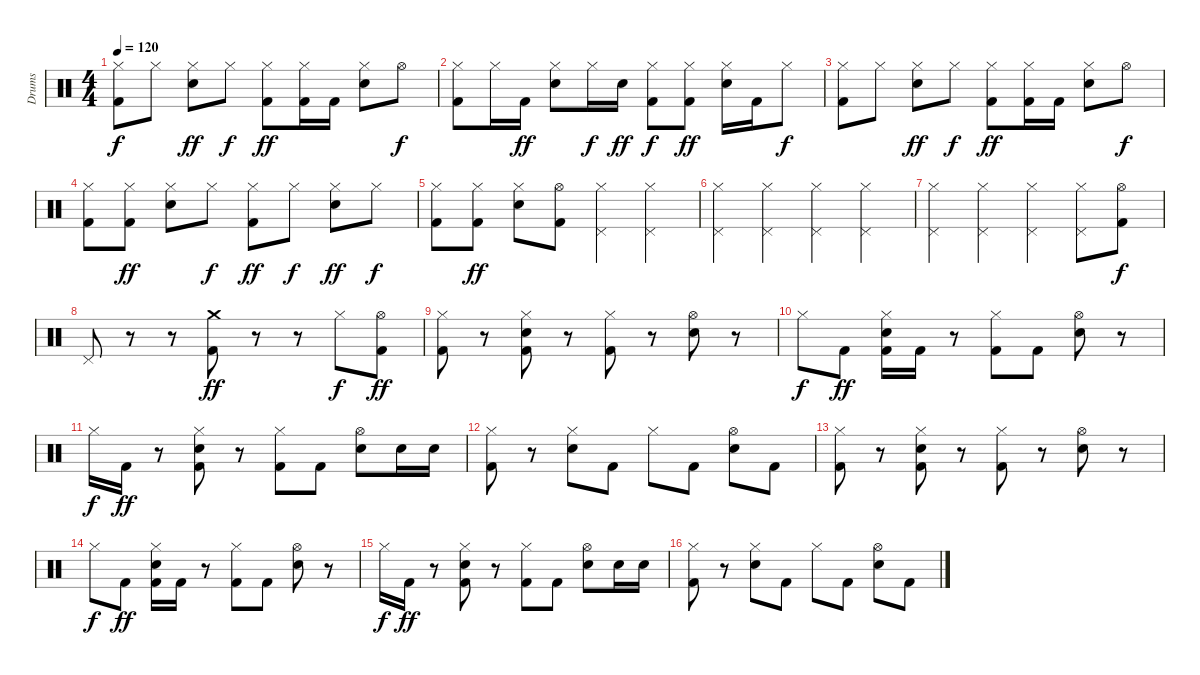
\track ("Drums" "Drums") {instrument percussion}
\staff {score}
\articulation defaults
\ts (4 4)
\tempo 120
\clef neutral
\ks c
("Hi-Hat (closed)" "Kick (hit) 2").8{dy f} "Hi-Hat (closed)".8 ("Hi-Hat (closed)" "Electric Snare (hit)").8{dy ff} "Hi-Hat (closed)".8{dy f} ("Hi-Hat (closed)" "Kick (hit) 2").8{dy ff} ("Hi-Hat (closed)" "Kick (hit) 2").16 "Kick (hit) 2".16 ("Hi-Hat (closed)" "Electric Snare (hit)").8 "Hi-Hat (open)".8{dy f} |
("Hi-Hat (closed)" "Kick (hit) 2").8 "Hi-Hat (closed)".16 "Kick (hit) 2".16{dy ff} ("Hi-Hat (closed)" "Electric Snare (hit)").8 "Hi-Hat (closed)".16{dy f} "Electric Snare (hit)".16{dy ff} ("Hi-Hat (closed)" "Kick (hit) 2").8{dy f} ("Hi-Hat (closed)" "Kick (hit) 2").8{dy ff} ("Hi-Hat (closed)" "Electric Snare (hit)").16 "Kick (hit) 2".16 "Hi-Hat (closed)".8{dy f} |
("Hi-Hat (closed)" "Kick (hit) 2").8 "Hi-Hat (closed)".8 ("Hi-Hat (closed)" "Electric Snare (hit)").8{dy ff} "Hi-Hat (closed)".8{dy f} ("Hi-Hat (closed)" "Kick (hit) 2").8{dy ff} ("Hi-Hat (closed)" "Kick (hit) 2").16 "Kick (hit) 2".16 ("Hi-Hat (closed)" "Electric Snare (hit)").8 "Hi-Hat (open)".8{dy f} |
("Hi-Hat (closed)" "Kick (hit) 2").8 ("Hi-Hat (closed)" "Kick (hit) 2").8{dy ff} ("Hi-Hat (closed)" "Electric Snare (hit)").8 "Hi-Hat (closed)".8{dy f} ("Hi-Hat (closed)" "Kick (hit) 2").8{dy ff} "Hi-Hat (closed)".8{dy f} ("Hi-Hat (closed)" "Electric Snare (hit)").8{dy ff} "Hi-Hat (closed)".8{dy f} |
("Hi-Hat (closed)" "Kick (hit) 2").8 ("Hi-Hat (closed)" "Kick (hit) 2").8{dy ff} ("Hi-Hat (closed)" "Electric Snare (hit)").8 ("Hi-Hat (open)" "Kick (hit) 2").8 ("Hi-Hat (closed)" "Pedal Hi-Hat (hit)").4 ("Hi-Hat (closed)" "Pedal Hi-Hat (hit)").4 |
("Hi-Hat (closed)" "Pedal Hi-Hat (hit)").4 ("Hi-Hat (closed)" "Pedal Hi-Hat (hit)").4 ("Hi-Hat (closed)" "Pedal Hi-Hat (hit)").4 ("Hi-Hat (closed)" "Pedal Hi-Hat (hit)").4 |
("Hi-Hat (closed)" "Pedal Hi-Hat (hit)").4 ("Hi-Hat (closed)" "Pedal Hi-Hat (hit)").4 ("Hi-Hat (closed)" "Pedal Hi-Hat (hit)").4 ("Hi-Hat (closed)" "Pedal Hi-Hat (hit)").8 ("Hi-Hat (open)" "Kick (hit) 2").8{dy f} |
"Pedal Hi-Hat (hit)".8 r.8 r.8 ("Crash medium (hit)" "Kick (hit) 2").8{dy ff} r.8 r.8 "Hi-Hat (closed)".8{dy f} ("Hi-Hat (open)" "Kick (hit) 2").8{dy ff} |
("Hi-Hat (closed)" "Kick (hit) 2").8 r.8 ("Hi-Hat (closed)" "Electric Snare (hit)" "Kick (hit) 2").8 r.8 ("Hi-Hat (closed)" "Kick (hit) 2").8 r.8 ("Hi-Hat (open)" "Electric Snare (hit)").8 r.8 |
"Hi-Hat (closed)".8{dy f} "Kick (hit) 2".8{dy ff} ("Hi-Hat (closed)" "Electric Snare (hit)" "Kick (hit) 2").16 "Kick (hit) 2".16 r.8 ("Hi-Hat (closed)" "Kick (hit) 2").8 "Kick (hit) 2".8 ("Hi-Hat (open)" "Electric Snare (hit)").8 r.8 |
"Hi-Hat (closed)".16{dy f} "Kick (hit) 2".16{dy ff} r.8 ("Hi-Hat (closed)" "Electric Snare (hit)" "Kick (hit) 2").8 r.8 ("Hi-Hat (closed)" "Kick (hit) 2").8 "Kick (hit) 2".8 ("Hi-Hat (open)" "Electric Snare (hit)").8 "Electric Snare (hit)".16 "Electric Snare (hit)".16 |
("Hi-Hat (closed)" "Kick (hit) 2").8 r.8 ("Hi-Hat (closed)" "Electric Snare (hit)").8 "Kick (hit) 2".8 "Hi-Hat (closed)".8 "Kick (hit) 2".8 ("Hi-Hat (open)" "Electric Snare (hit)").8 "Kick (hit) 2".8 |
("Hi-Hat (closed)" "Kick (hit) 2").8 r.8 ("Hi-Hat (closed)" "Electric Snare (hit)" "Kick (hit) 2").8 r.8 ("Hi-Hat (closed)" "Kick (hit) 2").8 r.8 ("Hi-Hat (open)" "Electric Snare (hit)").8 r.8 |
"Hi-Hat (closed)".8{dy f} "Kick (hit) 2".8{dy ff} ("Hi-Hat (closed)" "Electric Snare (hit)" "Kick (hit) 2").16 "Kick (hit) 2".16 r.8 ("Hi-Hat (closed)" "Kick (hit) 2").8 "Kick (hit) 2".8 ("Hi-Hat (open)" "Electric Snare (hit)").8 r.8 |
"Hi-Hat (closed)".16{dy f} "Kick (hit) 2".16{dy ff} r.8 ("Hi-Hat (closed)" "Electric Snare (hit)" "Kick (hit) 2").8 r.8 ("Hi-Hat (closed)" "Kick (hit) 2").8 "Kick (hit) 2".8 ("Hi-Hat (open)" "Electric Snare (hit)").8 "Electric Snare (hit)".16 "Electric Snare (hit)".16 |
("Hi-Hat (closed)" "Kick (hit) 2").8 r.8 ("Hi-Hat (closed)" "Electric Snare (hit)").8 "Kick (hit) 2".8 "Hi-Hat (closed)".8 "Kick (hit) 2".8 ("Hi-Hat (open)" "Electric Snare (hit)").8 "Kick (hit) 2".8
